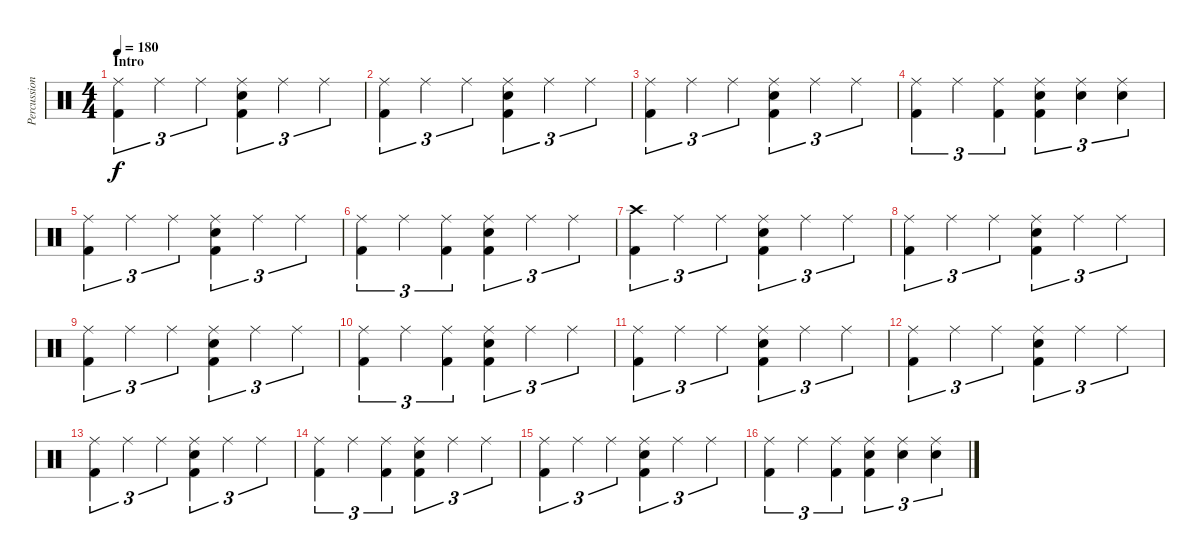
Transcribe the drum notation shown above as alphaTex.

\track ("Percussion" "Percussion") {instrument percussion}
\staff {score}
\articulation defaults
\ts (4 4)
\section ("" "Intro")
\tempo 180
\clef neutral
\ks c
("Ride (middle)" "Kick (hit) 2").4{tu (3 2) dy f} "Ride (middle)".4{tu (3 2)} "Ride (middle)".4{tu (3 2)} ("Ride (middle)" "Snare (hit) 2" "Kick (hit) 2").4{tu (3 2)} "Ride (middle)".4{tu (3 2)} "Ride (middle)".4{tu (3 2)} |
("Ride (middle)" "Kick (hit) 2").4{tu (3 2)} "Ride (middle)".4{tu (3 2)} "Ride (middle)".4{tu (3 2)} ("Ride (middle)" "Snare (hit) 2" "Kick (hit) 2").4{tu (3 2)} "Ride (middle)".4{tu (3 2)} "Ride (middle)".4{tu (3 2)} |
("Ride (middle)" "Kick (hit) 2").4{tu (3 2)} "Ride (middle)".4{tu (3 2)} "Ride (middle)".4{tu (3 2)} ("Ride (middle)" "Snare (hit) 2" "Kick (hit) 2").4{tu (3 2)} "Ride (middle)".4{tu (3 2)} "Ride (middle)".4{tu (3 2)} |
("Ride (middle)" "Kick (hit) 2").4{tu (3 2)} "Ride (middle)".4{tu (3 2)} ("Ride (middle)" "Kick (hit) 2").4{tu (3 2)} ("Ride (middle)" "Snare (hit) 2" "Kick (hit) 2").4{tu (3 2)} ("Ride (middle)" "Snare (hit) 2").4{tu (3 2)} ("Ride (middle)" "Snare (hit) 2").4{tu (3 2)} |
("Ride (middle)" "Kick (hit) 2").4{tu (3 2)} "Ride (middle)".4{tu (3 2)} "Ride (middle)".4{tu (3 2)} ("Ride (middle)" "Snare (hit) 2" "Kick (hit) 2").4{tu (3 2)} "Ride (middle)".4{tu (3 2)} "Ride (middle)".4{tu (3 2)} |
("Ride (middle)" "Kick (hit) 2").4{tu (3 2)} "Ride (middle)".4{tu (3 2)} ("Ride (middle)" "Kick (hit) 2").4{tu (3 2)} ("Ride (middle)" "Snare (hit) 2" "Kick (hit) 2").4{tu (3 2)} "Ride (middle)".4{tu (3 2)} "Ride (middle)".4{tu (3 2)} |
("Crash high (hit)" "Kick (hit) 2").4{tu (3 2)} "Ride (middle)".4{tu (3 2)} "Ride (middle)".4{tu (3 2)} ("Ride (middle)" "Snare (hit) 2" "Kick (hit) 2").4{tu (3 2)} "Ride (middle)".4{tu (3 2)} "Ride (middle)".4{tu (3 2)} |
("Ride (middle)" "Kick (hit) 2").4{tu (3 2)} "Ride (middle)".4{tu (3 2)} "Ride (middle)".4{tu (3 2)} ("Ride (middle)" "Snare (hit) 2" "Kick (hit) 2").4{tu (3 2)} "Ride (middle)".4{tu (3 2)} "Ride (middle)".4{tu (3 2)} |
("Ride (middle)" "Kick (hit) 2").4{tu (3 2)} "Ride (middle)".4{tu (3 2)} "Ride (middle)".4{tu (3 2)} ("Ride (middle)" "Snare (hit) 2" "Kick (hit) 2").4{tu (3 2)} "Ride (middle)".4{tu (3 2)} "Ride (middle)".4{tu (3 2)} |
("Ride (middle)" "Kick (hit) 2").4{tu (3 2)} "Ride (middle)".4{tu (3 2)} ("Ride (middle)" "Kick (hit) 2").4{tu (3 2)} ("Ride (middle)" "Snare (hit) 2" "Kick (hit) 2").4{tu (3 2)} "Ride (middle)".4{tu (3 2)} "Ride (middle)".4{tu (3 2)} |
("Ride (middle)" "Kick (hit) 2").4{tu (3 2)} "Ride (middle)".4{tu (3 2)} "Ride (middle)".4{tu (3 2)} ("Ride (middle)" "Snare (hit) 2" "Kick (hit) 2").4{tu (3 2)} "Ride (middle)".4{tu (3 2)} "Ride (middle)".4{tu (3 2)} |
("Ride (middle)" "Kick (hit) 2").4{tu (3 2)} "Ride (middle)".4{tu (3 2)} "Ride (middle)".4{tu (3 2)} ("Ride (middle)" "Snare (hit) 2" "Kick (hit) 2").4{tu (3 2)} "Ride (middle)".4{tu (3 2)} "Ride (middle)".4{tu (3 2)} |
("Ride (middle)" "Kick (hit) 2").4{tu (3 2)} "Ride (middle)".4{tu (3 2)} "Ride (middle)".4{tu (3 2)} ("Ride (middle)" "Snare (hit) 2" "Kick (hit) 2").4{tu (3 2)} "Ride (middle)".4{tu (3 2)} "Ride (middle)".4{tu (3 2)} |
("Ride (middle)" "Kick (hit) 2").4{tu (3 2)} "Ride (middle)".4{tu (3 2)} ("Ride (middle)" "Kick (hit) 2").4{tu (3 2)} ("Ride (middle)" "Snare (hit) 2" "Kick (hit) 2").4{tu (3 2)} "Ride (middle)".4{tu (3 2)} "Ride (middle)".4{tu (3 2)} |
("Ride (middle)" "Kick (hit) 2").4{tu (3 2)} "Ride (middle)".4{tu (3 2)} "Ride (middle)".4{tu (3 2)} ("Ride (middle)" "Snare (hit) 2" "Kick (hit) 2").4{tu (3 2)} "Ride (middle)".4{tu (3 2)} "Ride (middle)".4{tu (3 2)} |
("Ride (middle)" "Kick (hit) 2").4{tu (3 2)} "Ride (middle)".4{tu (3 2)} ("Ride (middle)" "Kick (hit) 2").4{tu (3 2)} ("Ride (middle)" "Snare (hit) 2" "Kick (hit) 2").4{tu (3 2)} ("Ride (middle)" "Snare (hit) 2").4{tu (3 2)} ("Ride (middle)" "Snare (hit) 2").4{tu (3 2)}
